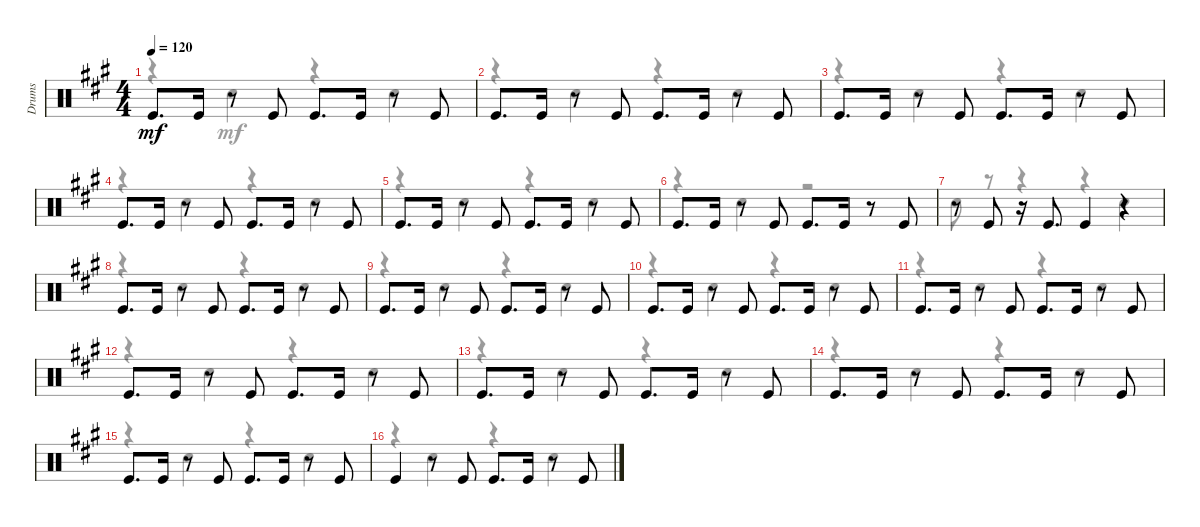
\track ("Drums" "Drums") {instrument percussion}
\staff {score}
\articulation defaults
\voice
\ts (4 4)
\tempo 120
\clef neutral
\ks f#minor "Kick (hit)".8{d dy mf} "Kick (hit)".16
r.8 "Kick (hit)".8 "Kick (hit)".8{d} "Kick (hit)".16 r.8 "Kick (hit)".8 |
"Kick (hit)".8{d} "Kick (hit)".16 r.8 "Kick (hit)".8 "Kick (hit)".8{d} "Kick (hit)".16 r.8 "Kick (hit)".8 |
"Kick (hit)".8{d} "Kick (hit)".16 r.8 "Kick (hit)".8 "Kick (hit)".8{d} "Kick (hit)".16 r.8 "Kick (hit)".8 |
"Kick (hit)".8{d} "Kick (hit)".16 r.8 "Kick (hit)".8 "Kick (hit)".8{d} "Kick (hit)".16 r.8 "Kick (hit)".8 |
"Kick (hit)".8{d} "Kick (hit)".16 r.8 "Kick (hit)".8 "Kick (hit)".8{d} "Kick (hit)".16 r.8 "Kick (hit)".8 |
"Kick (hit)".8{d} "Kick (hit)".16 r.8 "Kick (hit)".8 "Kick (hit)".8{d} "Kick (hit)".16 r.8 "Kick (hit)".8 |
r.8 "Kick (hit)".8 r.16 "Kick (hit)".8{d} "Kick (hit)".4 r.4 |
"Kick (hit)".8{d} "Kick (hit)".16 r.8 "Kick (hit)".8 "Kick (hit)".8{d} "Kick (hit)".16 r.8 "Kick (hit)".8 |
"Kick (hit)".8{d} "Kick (hit)".16 r.8 "Kick (hit)".8 "Kick (hit)".8{d} "Kick (hit)".16 r.8 "Kick (hit)".8 |
"Kick (hit)".8{d} "Kick (hit)".16 r.8 "Kick (hit)".8 "Kick (hit)".8{d} "Kick (hit)".16 r.8 "Kick (hit)".8 |
"Kick (hit)".8{d} "Kick (hit)".16 r.8 "Kick (hit)".8 "Kick (hit)".8{d} "Kick (hit)".16 r.8 "Kick (hit)".8 |
"Kick (hit)".8{d} "Kick (hit)".16 r.8 "Kick (hit)".8 "Kick (hit)".8{d} "Kick (hit)".16 r.8 "Kick (hit)".8 |
"Kick (hit)".8{d} "Kick (hit)".16 r.8 "Kick (hit)".8 "Kick (hit)".8{d} "Kick (hit)".16 r.8 "Kick (hit)".8 |
"Kick (hit)".8{d} "Kick (hit)".16 r.8 "Kick (hit)".8 "Kick (hit)".8{d} "Kick (hit)".16 r.8 "Kick (hit)".8 |
"Kick (hit)".8{d} "Kick (hit)".16 r.8 "Kick (hit)".8 "Kick (hit)".8{d} "Kick (hit)".16 r.8 "Kick (hit)".8 |
"Kick (hit)".4 r.8 "Kick (hit)".8 "Kick (hit)".8{d} "Kick (hit)".16 r.8 "Kick (hit)".8
\voice
\clef neutral
\ottava regular
\simile none
\ks f#minor
r.4{dy mf} "Snare (hit) 2".4 r.4 "Snare (hit) 2".4 |
r.4 "Snare (hit) 2".4 r.4 "Snare (hit) 2".4 |
r.4 "Snare (hit) 2".4 r.4 "Snare (hit) 2".4 |
r.4 "Snare (hit) 2".4 r.4 "Snare (hit) 2".4 |
r.4 "Snare (hit) 2".4 r.4 "Snare (hit) 2".4 |
r.4 "Snare (hit) 2".4 r.2 |
"Snare (hit) 2".8 r.8 r.4 r.4 "Snare (hit) 2".4 |
r.4 "Snare (hit) 2".4 r.4 "Snare (hit) 2".4 |
r.4 "Snare (hit) 2".4 r.4 "Snare (hit) 2".4 |
r.4 "Snare (hit) 2".4 r.4 "Snare (hit) 2".4 |
r.4 "Snare (hit) 2".4 r.4 "Snare (hit) 2".4 |
r.4 "Snare (hit) 2".4 r.4 "Snare (hit) 2".4 |
r.4 "Snare (hit) 2".4 r.4 "Snare (hit) 2".4 |
r.4 "Snare (hit) 2".4 r.4 "Snare (hit) 2".4 |
r.4 "Snare (hit) 2".4 r.4 "Snare (hit) 2".4 |
r.4 "Snare (hit) 2".4 r.4 "Snare (hit) 2".4
